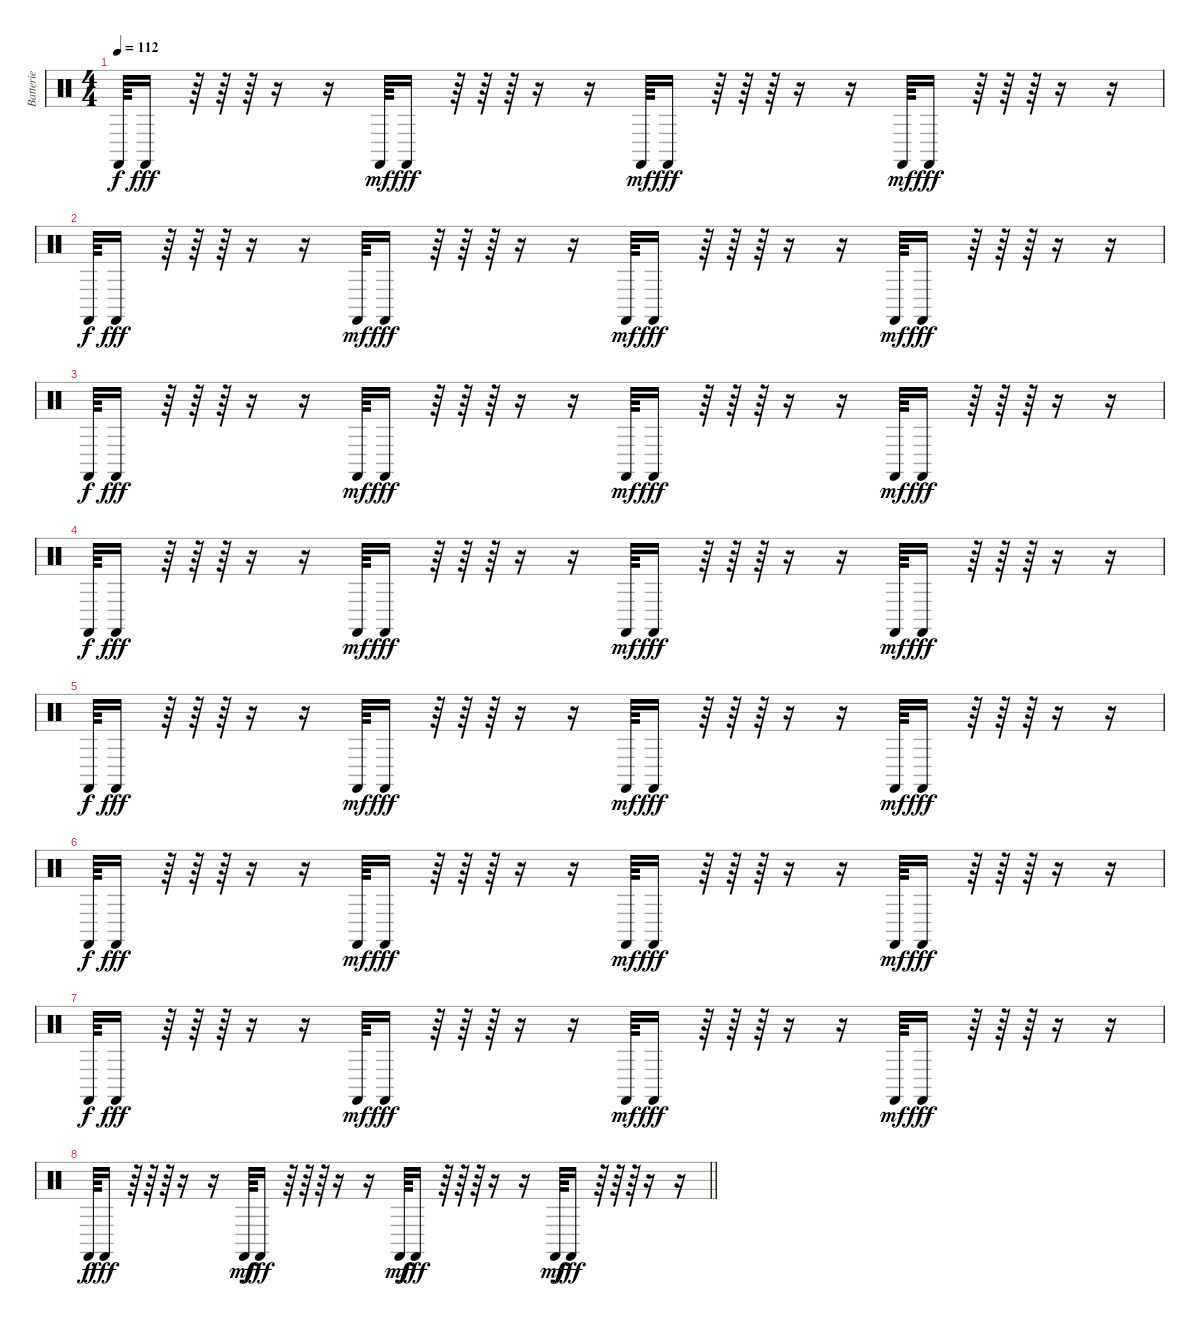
\track ("Batterie" "Batterie") {instrument percussion}
\staff {score}
\articulation defaults
\ts (4 4)
\tempo 112
\clef neutral
\ks c "Castanets (hit)".64{dy f} "Castanets (hit)".16{dy fff}
r.64 r.64 r.64 r.16 r.16 "Castanets (hit)".64{dy mf} "Castanets (hit)".16{dy fff} r.64 r.64 r.64 r.16 r.16 "Castanets (hit)".64{dy mf} "Castanets (hit)".16{dy fff} r.64 r.64 r.64 r.16 r.16 "Castanets (hit)".64{dy mf} "Castanets (hit)".16{dy fff} r.64 r.64 r.64 r.16 r.16 |
"Castanets (hit)".64{dy f} "Castanets (hit)".16{dy fff} r.64 r.64 r.64 r.16 r.16 "Castanets (hit)".64{dy mf} "Castanets (hit)".16{dy fff} r.64 r.64 r.64 r.16 r.16 "Castanets (hit)".64{dy mf} "Castanets (hit)".16{dy fff} r.64 r.64 r.64 r.16 r.16 "Castanets (hit)".64{dy mf} "Castanets (hit)".16{dy fff} r.64 r.64 r.64 r.16 r.16 |
"Castanets (hit)".64{dy f} "Castanets (hit)".16{dy fff} r.64 r.64 r.64 r.16 r.16 "Castanets (hit)".64{dy mf} "Castanets (hit)".16{dy fff} r.64 r.64 r.64 r.16 r.16 "Castanets (hit)".64{dy mf} "Castanets (hit)".16{dy fff} r.64 r.64 r.64 r.16 r.16 "Castanets (hit)".64{dy mf} "Castanets (hit)".16{dy fff} r.64 r.64 r.64 r.16 r.16 |
"Castanets (hit)".64{dy f} "Castanets (hit)".16{dy fff} r.64 r.64 r.64 r.16 r.16 "Castanets (hit)".64{dy mf} "Castanets (hit)".16{dy fff} r.64 r.64 r.64 r.16 r.16 "Castanets (hit)".64{dy mf} "Castanets (hit)".16{dy fff} r.64 r.64 r.64 r.16 r.16 "Castanets (hit)".64{dy mf} "Castanets (hit)".16{dy fff} r.64 r.64 r.64 r.16 r.16 |
"Castanets (hit)".64{dy f} "Castanets (hit)".16{dy fff} r.64 r.64 r.64 r.16 r.16 "Castanets (hit)".64{dy mf} "Castanets (hit)".16{dy fff} r.64 r.64 r.64 r.16 r.16 "Castanets (hit)".64{dy mf} "Castanets (hit)".16{dy fff} r.64 r.64 r.64 r.16 r.16 "Castanets (hit)".64{dy mf} "Castanets (hit)".16{dy fff} r.64 r.64 r.64 r.16 r.16 |
"Castanets (hit)".64{dy f} "Castanets (hit)".16{dy fff} r.64 r.64 r.64 r.16 r.16 "Castanets (hit)".64{dy mf} "Castanets (hit)".16{dy fff} r.64 r.64 r.64 r.16 r.16 "Castanets (hit)".64{dy mf} "Castanets (hit)".16{dy fff} r.64 r.64 r.64 r.16 r.16 "Castanets (hit)".64{dy mf} "Castanets (hit)".16{dy fff} r.64 r.64 r.64 r.16 r.16 |
"Castanets (hit)".64{dy f} "Castanets (hit)".16{dy fff} r.64 r.64 r.64 r.16 r.16 "Castanets (hit)".64{dy mf} "Castanets (hit)".16{dy fff} r.64 r.64 r.64 r.16 r.16 "Castanets (hit)".64{dy mf} "Castanets (hit)".16{dy fff} r.64 r.64 r.64 r.16 r.16 "Castanets (hit)".64{dy mf} "Castanets (hit)".16{dy fff} r.64 r.64 r.64 r.16 r.16 |
\barLineRight lightlight "Castanets (hit)".64{dy f} "Castanets (hit)".16{dy fff}
r.64 r.64 r.64 r.16 r.16 "Castanets (hit)".64{dy mf} "Castanets (hit)".16{dy fff} r.64 r.64 r.64 r.16 r.16 "Castanets (hit)".64{dy mf} "Castanets (hit)".16{dy fff} r.64 r.64 r.64 r.16 r.16 "Castanets (hit)".64{dy mf} "Castanets (hit)".16{dy fff} r.64 r.64 r.64 r.16 r.16
